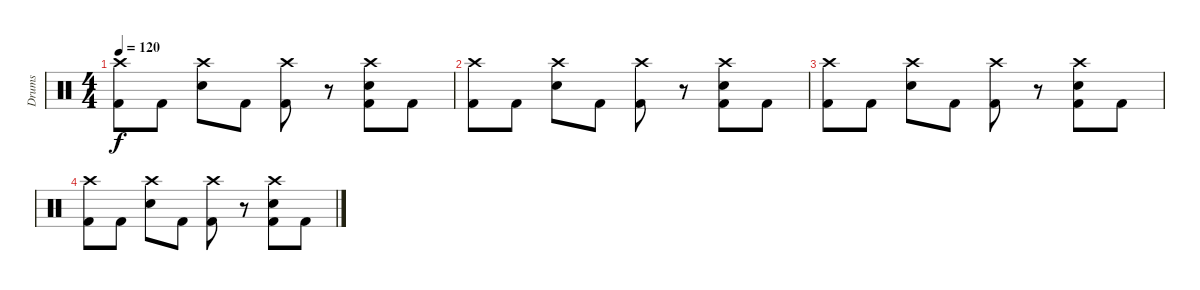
\track ("Drums" "Drums") {instrument percussion}
\staff {score}
\articulation defaults
\ts (4 4)
\tempo 120
\clef neutral
\ks c
("Crash high (hit)" "Kick (hit) 2").8{dy f} "Kick (hit) 2".8 ("Crash high (hit)" "Snare (hit) 2").8 "Kick (hit) 2".8 ("Crash high (hit)" "Kick (hit) 2").8 r.8 ("Crash high (hit)" "Snare (hit) 2" "Kick (hit) 2").8 "Kick (hit) 2".8 |
("Crash high (hit)" "Kick (hit) 2").8 "Kick (hit) 2".8 ("Crash high (hit)" "Snare (hit) 2").8 "Kick (hit) 2".8 ("Crash high (hit)" "Kick (hit) 2").8 r.8 ("Crash high (hit)" "Snare (hit) 2" "Kick (hit) 2").8 "Kick (hit) 2".8 |
("Crash high (hit)" "Kick (hit) 2").8 "Kick (hit) 2".8 ("Crash high (hit)" "Snare (hit) 2").8 "Kick (hit) 2".8 ("Crash high (hit)" "Kick (hit) 2").8 r.8 ("Crash high (hit)" "Snare (hit) 2" "Kick (hit) 2").8 "Kick (hit) 2".8 |
("Crash high (hit)" "Kick (hit) 2").8 "Kick (hit) 2".8 ("Crash high (hit)" "Snare (hit) 2").8 "Kick (hit) 2".8 ("Crash high (hit)" "Kick (hit) 2").8 r.8 ("Crash high (hit)" "Snare (hit) 2" "Kick (hit) 2").8 "Kick (hit) 2".8
